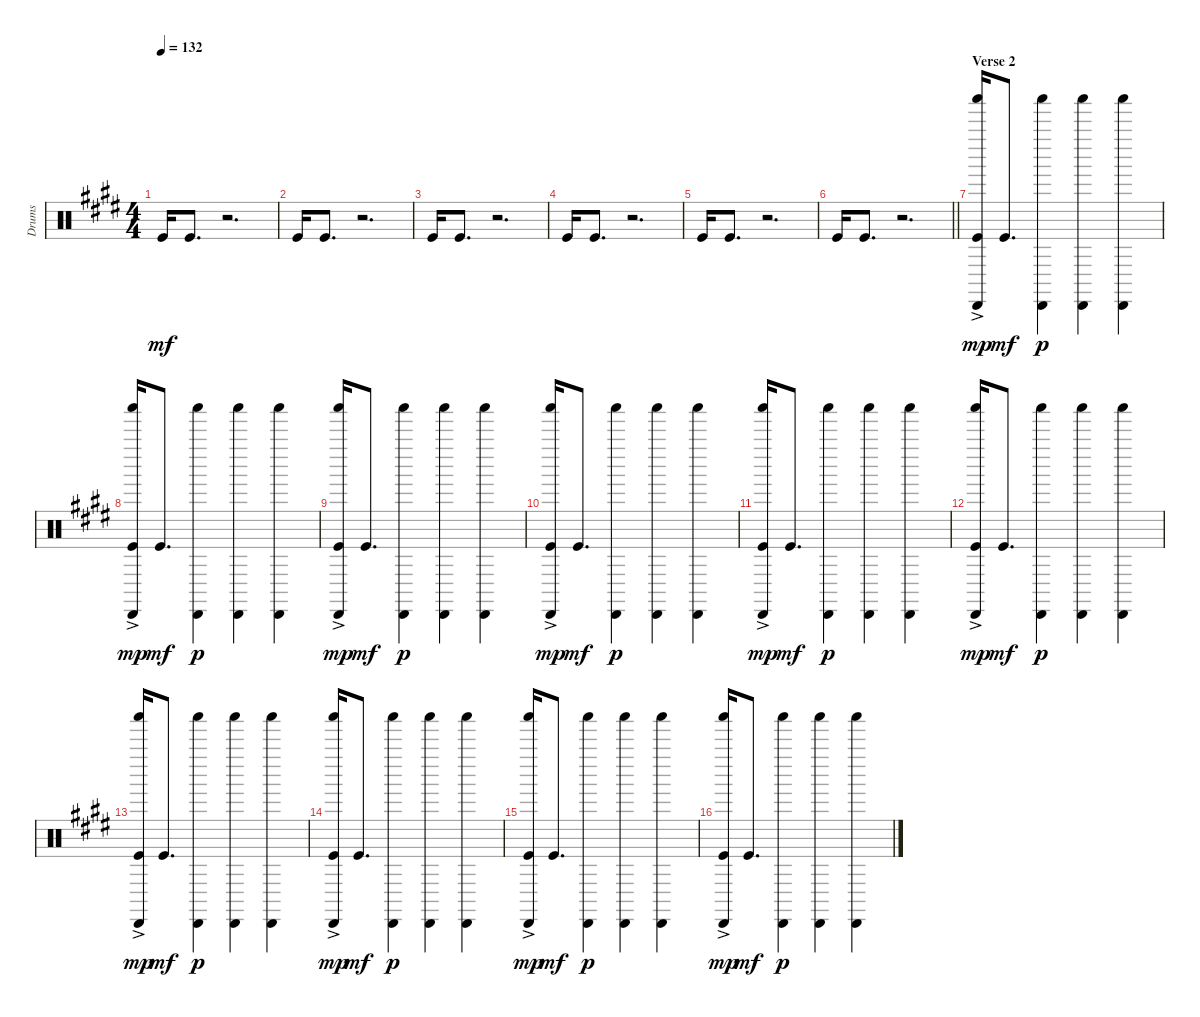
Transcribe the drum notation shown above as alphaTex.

\track ("Drums" "Drums") {instrument percussion}
\staff {score}
\articulation defaults
\ts (4 4)
\tempo 132
\clef neutral
\ks e "Kick (hit)".16{dy mf} "Kick (hit)".8{d}
r.2{d} |
"Kick (hit)".16 "Kick (hit)".8{d} r.2{d} |
"Kick (hit)".16 "Kick (hit)".8{d} r.2{d} |
"Kick (hit)".16 "Kick (hit)".8{d} r.2{d} |
"Kick (hit)".16 "Kick (hit)".8{d} r.2{d} |
\barLineRight lightlight "Kick (hit)".16 "Kick (hit)".8{d}
r.2{d} |
\section ("" "Verse 2")
("Shaker (hit)" "Cabasa (hit)"{ac} "Kick (hit)").16{dy mp} "Kick (hit)".8{d dy mf} ("Shaker (hit)" "Cabasa (hit)").4{dy p} ("Shaker (hit)" "Cabasa (hit)").4 ("Shaker (hit)" "Cabasa (hit)").4 |
("Shaker (hit)" "Cabasa (hit)"{ac} "Kick (hit)").16{dy mp} "Kick (hit)".8{d dy mf} ("Shaker (hit)" "Cabasa (hit)").4{dy p} ("Shaker (hit)" "Cabasa (hit)").4 ("Shaker (hit)" "Cabasa (hit)").4 |
("Shaker (hit)" "Cabasa (hit)"{ac} "Kick (hit)").16{dy mp} "Kick (hit)".8{d dy mf} ("Shaker (hit)" "Cabasa (hit)").4{dy p} ("Shaker (hit)" "Cabasa (hit)").4 ("Shaker (hit)" "Cabasa (hit)").4 |
("Shaker (hit)" "Cabasa (hit)"{ac} "Kick (hit)").16{dy mp} "Kick (hit)".8{d dy mf} ("Shaker (hit)" "Cabasa (hit)").4{dy p} ("Shaker (hit)" "Cabasa (hit)").4 ("Shaker (hit)" "Cabasa (hit)").4 |
("Shaker (hit)" "Cabasa (hit)"{ac} "Kick (hit)").16{dy mp} "Kick (hit)".8{d dy mf} ("Shaker (hit)" "Cabasa (hit)").4{dy p} ("Shaker (hit)" "Cabasa (hit)").4 ("Shaker (hit)" "Cabasa (hit)").4 |
("Shaker (hit)" "Cabasa (hit)"{ac} "Kick (hit)").16{dy mp} "Kick (hit)".8{d dy mf} ("Shaker (hit)" "Cabasa (hit)").4{dy p} ("Shaker (hit)" "Cabasa (hit)").4 ("Shaker (hit)" "Cabasa (hit)").4 |
("Shaker (hit)" "Cabasa (hit)"{ac} "Kick (hit)").16{dy mp} "Kick (hit)".8{d dy mf} ("Shaker (hit)" "Cabasa (hit)").4{dy p} ("Shaker (hit)" "Cabasa (hit)").4 ("Shaker (hit)" "Cabasa (hit)").4 |
("Shaker (hit)" "Cabasa (hit)"{ac} "Kick (hit)").16{dy mp} "Kick (hit)".8{d dy mf} ("Shaker (hit)" "Cabasa (hit)").4{dy p} ("Shaker (hit)" "Cabasa (hit)").4 ("Shaker (hit)" "Cabasa (hit)").4 |
("Shaker (hit)" "Cabasa (hit)"{ac} "Kick (hit)").16{dy mp} "Kick (hit)".8{d dy mf} ("Shaker (hit)" "Cabasa (hit)").4{dy p} ("Shaker (hit)" "Cabasa (hit)").4 ("Shaker (hit)" "Cabasa (hit)").4 |
("Shaker (hit)" "Cabasa (hit)"{ac} "Kick (hit)").16{dy mp} "Kick (hit)".8{d dy mf} ("Shaker (hit)" "Cabasa (hit)").4{dy p} ("Shaker (hit)" "Cabasa (hit)").4 ("Shaker (hit)" "Cabasa (hit)").4
